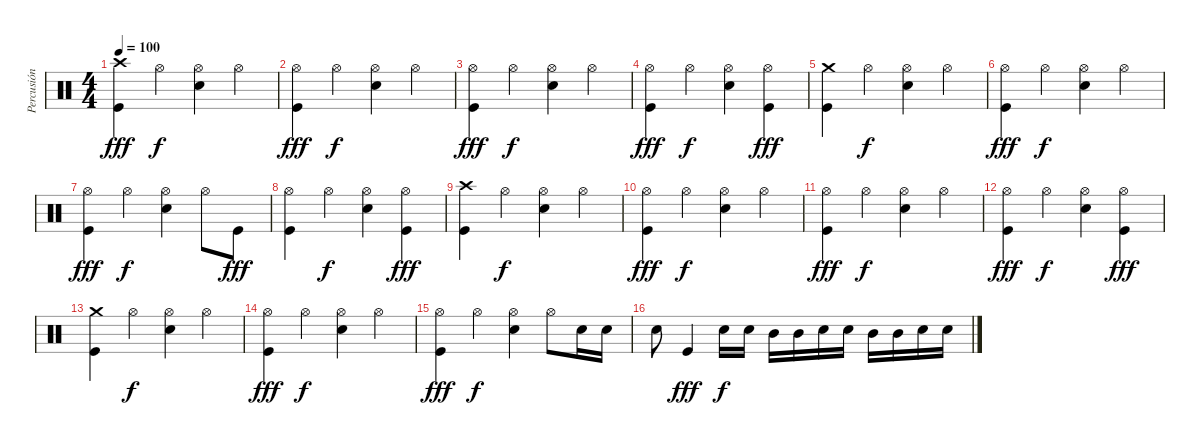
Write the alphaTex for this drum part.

\track ("Percusión" "Percusión") {instrument percussion}
\staff {score}
\articulation defaults
\ts (4 4)
\tempo 100
\clef neutral
\ks c
("Crash high (hit)" "Kick (hit)").4{dy fff} "Hi-Hat (open)".4{dy f} ("Hi-Hat (open)" "Electric Snare (hit)").4 "Hi-Hat (open)".4 |
("Hi-Hat (open)" "Kick (hit)").4{dy fff} "Hi-Hat (open)".4{dy f} ("Hi-Hat (open)" "Electric Snare (hit)").4 "Hi-Hat (open)".4 |
("Hi-Hat (open)" "Kick (hit)").4{dy fff} "Hi-Hat (open)".4{dy f} ("Hi-Hat (open)" "Electric Snare (hit)").4 "Hi-Hat (open)".4 |
("Hi-Hat (open)" "Kick (hit)").4{dy fff} "Hi-Hat (open)".4{dy f} ("Hi-Hat (open)" "Electric Snare (hit)").4 ("Hi-Hat (open)" "Kick (hit)").4{dy fff} |
("Crash medium (hit)" "Kick (hit)").4 "Hi-Hat (open)".4{dy f} ("Hi-Hat (open)" "Electric Snare (hit)").4 "Hi-Hat (open)".4 |
("Hi-Hat (open)" "Kick (hit)").4{dy fff} "Hi-Hat (open)".4{dy f} ("Hi-Hat (open)" "Electric Snare (hit)").4 "Hi-Hat (open)".4 |
("Hi-Hat (open)" "Kick (hit)").4{dy fff} "Hi-Hat (open)".4{dy f} ("Hi-Hat (open)" "Electric Snare (hit)").4 "Hi-Hat (open)".8 "Kick (hit)".8{dy fff} |
("Hi-Hat (open)" "Kick (hit)").4 "Hi-Hat (open)".4{dy f} ("Hi-Hat (open)" "Electric Snare (hit)").4 ("Hi-Hat (open)" "Kick (hit)").4{dy fff} |
("Crash high (hit)" "Kick (hit)").4 "Hi-Hat (open)".4{dy f} ("Hi-Hat (open)" "Electric Snare (hit)").4 "Hi-Hat (open)".4 |
("Hi-Hat (open)" "Kick (hit)").4{dy fff} "Hi-Hat (open)".4{dy f} ("Hi-Hat (open)" "Electric Snare (hit)").4 "Hi-Hat (open)".4 |
("Hi-Hat (open)" "Kick (hit)").4{dy fff} "Hi-Hat (open)".4{dy f} ("Hi-Hat (open)" "Electric Snare (hit)").4 "Hi-Hat (open)".4 |
("Hi-Hat (open)" "Kick (hit)").4{dy fff} "Hi-Hat (open)".4{dy f} ("Hi-Hat (open)" "Electric Snare (hit)").4 ("Hi-Hat (open)" "Kick (hit)").4{dy fff} |
("Crash medium (hit)" "Kick (hit)").4 "Hi-Hat (open)".4{dy f} ("Hi-Hat (open)" "Electric Snare (hit)").4 "Hi-Hat (open)".4 |
("Hi-Hat (open)" "Kick (hit)").4{dy fff} "Hi-Hat (open)".4{dy f} ("Hi-Hat (open)" "Electric Snare (hit)").4 "Hi-Hat (open)".4 |
("Hi-Hat (open)" "Kick (hit)").4{dy fff} "Hi-Hat (open)".4{dy f} ("Hi-Hat (open)" "Electric Snare (hit)").4 "Hi-Hat (open)".8 "Electric Snare (hit)".16 "Electric Snare (hit)".16 |
"Electric Snare (hit)".8 "Kick (hit)".4{dy fff} "Electric Snare (hit)".16{dy f} "Electric Snare (hit)".16 "Mid Tom (hit)".16 "Mid Tom (hit)".16 "Electric Snare (hit)".16 "Electric Snare (hit)".16 "Mid Tom (hit)".16 "Mid Tom (hit)".16 "Electric Snare (hit)".16 "Electric Snare (hit)".16
